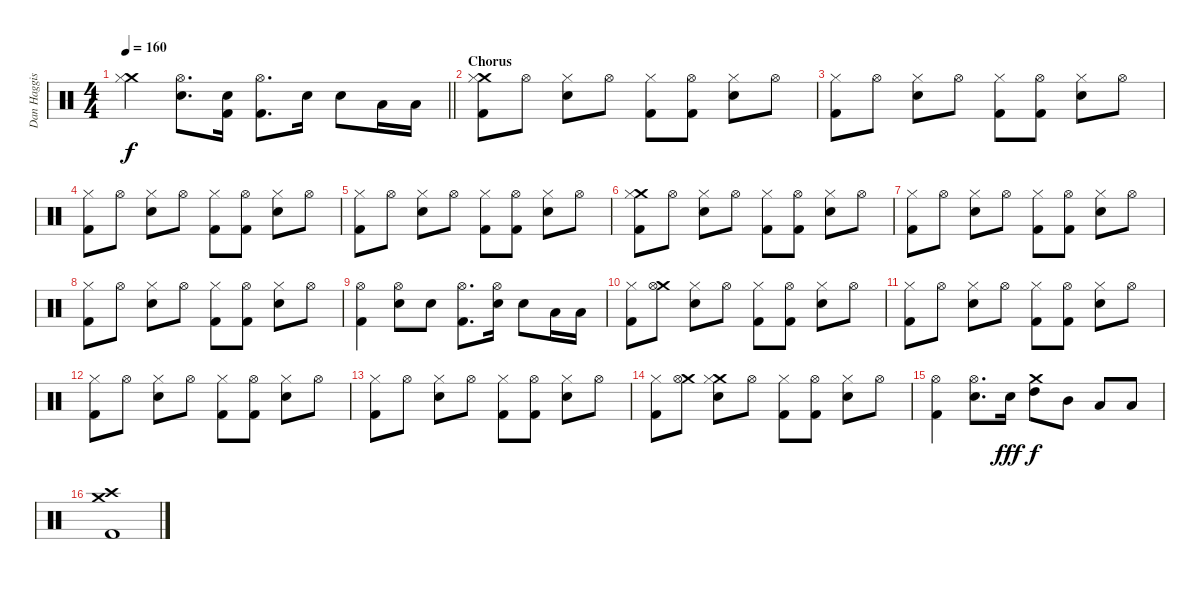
\track ("Dan Haggis" "Dan Haggis") {instrument percussion}
\staff {score}
\articulation defaults
\ts (4 4)
\tempo 160
\clef neutral
\barLineRight lightlight
\ks c
("Crash medium (hit)" "Hi-Hat (closed)").4{dy f} ("Hi-Hat (open)" "Electric Snare (hit)").8{d} ("Kick (hit) 2" "Electric Snare (hit)").16 ("Hi-Hat (open)" "Kick (hit) 2").8{d} "Electric Snare (hit)".16 "Electric Snare (hit)".8 "Low Tom (hit)".16 "Low Tom (hit)".16 |
\section ("" "Chorus")
("Crash medium (hit)" "Hi-Hat (closed)" "Kick (hit) 2").8 "Hi-Hat (open)".8 ("Hi-Hat (closed)" "Electric Snare (hit)").8 "Hi-Hat (open)".8 ("Hi-Hat (closed)" "Kick (hit) 2").8 ("Hi-Hat (open)" "Kick (hit) 2").8 ("Electric Snare (hit)" "Hi-Hat (closed)").8 "Hi-Hat (open)".8 |
("Hi-Hat (closed)" "Kick (hit) 2").8 "Hi-Hat (open)".8 ("Hi-Hat (closed)" "Electric Snare (hit)").8 "Hi-Hat (open)".8 ("Hi-Hat (closed)" "Kick (hit) 2").8 ("Hi-Hat (open)" "Kick (hit) 2").8 ("Electric Snare (hit)" "Hi-Hat (closed)").8 "Hi-Hat (open)".8 |
("Hi-Hat (closed)" "Kick (hit) 2").8 "Hi-Hat (open)".8 ("Hi-Hat (closed)" "Electric Snare (hit)").8 "Hi-Hat (open)".8 ("Hi-Hat (closed)" "Kick (hit) 2").8 ("Hi-Hat (open)" "Kick (hit) 2").8 ("Electric Snare (hit)" "Hi-Hat (closed)").8 "Hi-Hat (open)".8 |
("Hi-Hat (closed)" "Kick (hit) 2").8 "Hi-Hat (open)".8 ("Hi-Hat (closed)" "Electric Snare (hit)").8 "Hi-Hat (open)".8 ("Hi-Hat (closed)" "Kick (hit) 2").8 ("Hi-Hat (open)" "Kick (hit) 2").8 ("Electric Snare (hit)" "Hi-Hat (closed)").8 "Hi-Hat (open)".8 |
("Crash medium (hit)" "Hi-Hat (closed)" "Kick (hit) 2").8 "Hi-Hat (open)".8 ("Hi-Hat (closed)" "Electric Snare (hit)").8 "Hi-Hat (open)".8 ("Hi-Hat (closed)" "Kick (hit) 2").8 ("Hi-Hat (open)" "Kick (hit) 2").8 ("Electric Snare (hit)" "Hi-Hat (closed)").8 "Hi-Hat (open)".8 |
("Hi-Hat (closed)" "Kick (hit) 2").8 "Hi-Hat (open)".8 ("Hi-Hat (closed)" "Electric Snare (hit)").8 "Hi-Hat (open)".8 ("Hi-Hat (closed)" "Kick (hit) 2").8 ("Hi-Hat (open)" "Kick (hit) 2").8 ("Electric Snare (hit)" "Hi-Hat (closed)").8 "Hi-Hat (open)".8 |
("Hi-Hat (closed)" "Kick (hit) 2").8 "Hi-Hat (open)".8 ("Hi-Hat (closed)" "Electric Snare (hit)").8 "Hi-Hat (open)".8 ("Hi-Hat (closed)" "Kick (hit) 2").8 ("Hi-Hat (open)" "Kick (hit) 2").8 ("Electric Snare (hit)" "Hi-Hat (closed)").8 "Hi-Hat (open)".8 |
("Hi-Hat (open)" "Kick (hit) 2").4 ("Hi-Hat (open)" "Electric Snare (hit)").8 "Electric Snare (hit)".8 ("Hi-Hat (open)" "Kick (hit) 2").8{d} ("Hi-Hat (open)" "Electric Snare (hit)").16 "Electric Snare (hit)".8 "Low Tom (hit)".16 "Low Tom (hit)".16 |
("Hi-Hat (closed)" "Kick (hit) 2").8 ("Crash medium (hit)" "Hi-Hat (open)").8 ("Hi-Hat (closed)" "Electric Snare (hit)").8 "Hi-Hat (open)".8 ("Hi-Hat (closed)" "Kick (hit) 2").8 ("Hi-Hat (open)" "Kick (hit) 2").8 ("Electric Snare (hit)" "Hi-Hat (closed)").8 "Hi-Hat (open)".8 |
("Hi-Hat (closed)" "Kick (hit) 2").8 "Hi-Hat (open)".8 ("Hi-Hat (closed)" "Electric Snare (hit)").8 "Hi-Hat (open)".8 ("Hi-Hat (closed)" "Kick (hit) 2").8 ("Hi-Hat (open)" "Kick (hit) 2").8 ("Electric Snare (hit)" "Hi-Hat (closed)").8 "Hi-Hat (open)".8 |
("Hi-Hat (closed)" "Kick (hit) 2").8 "Hi-Hat (open)".8 ("Hi-Hat (closed)" "Electric Snare (hit)").8 "Hi-Hat (open)".8 ("Hi-Hat (closed)" "Kick (hit) 2").8 ("Hi-Hat (open)" "Kick (hit) 2").8 ("Electric Snare (hit)" "Hi-Hat (closed)").8 "Hi-Hat (open)".8 |
("Hi-Hat (closed)" "Kick (hit) 2").8 "Hi-Hat (open)".8 ("Hi-Hat (closed)" "Electric Snare (hit)").8 "Hi-Hat (open)".8 ("Hi-Hat (closed)" "Kick (hit) 2").8 ("Hi-Hat (open)" "Kick (hit) 2").8 ("Electric Snare (hit)" "Hi-Hat (closed)").8 "Hi-Hat (open)".8 |
("Hi-Hat (closed)" "Kick (hit) 2").8 ("Crash medium (hit)" "Hi-Hat (open)").8 ("Crash medium (hit)" "Hi-Hat (closed)" "Electric Snare (hit)").8 "Hi-Hat (open)".8 ("Hi-Hat (closed)" "Kick (hit) 2").8 ("Hi-Hat (open)" "Kick (hit) 2").8 ("Electric Snare (hit)" "Hi-Hat (closed)").8 "Hi-Hat (open)".8 |
("Hi-Hat (open)" "Kick (hit) 2").4 ("Hi-Hat (open)" "Electric Snare (hit)").8{d} "Electric Snare (hit)".16{dy fff} ("Crash medium (hit)" "High Tom (hit)").8{dy f} "Mid Tom (hit)".8 "Low Tom (hit)".8 "Low Tom (hit)".8 |
("Crash high (hit)" "Crash medium (hit)" "Kick (hit) 2").1
